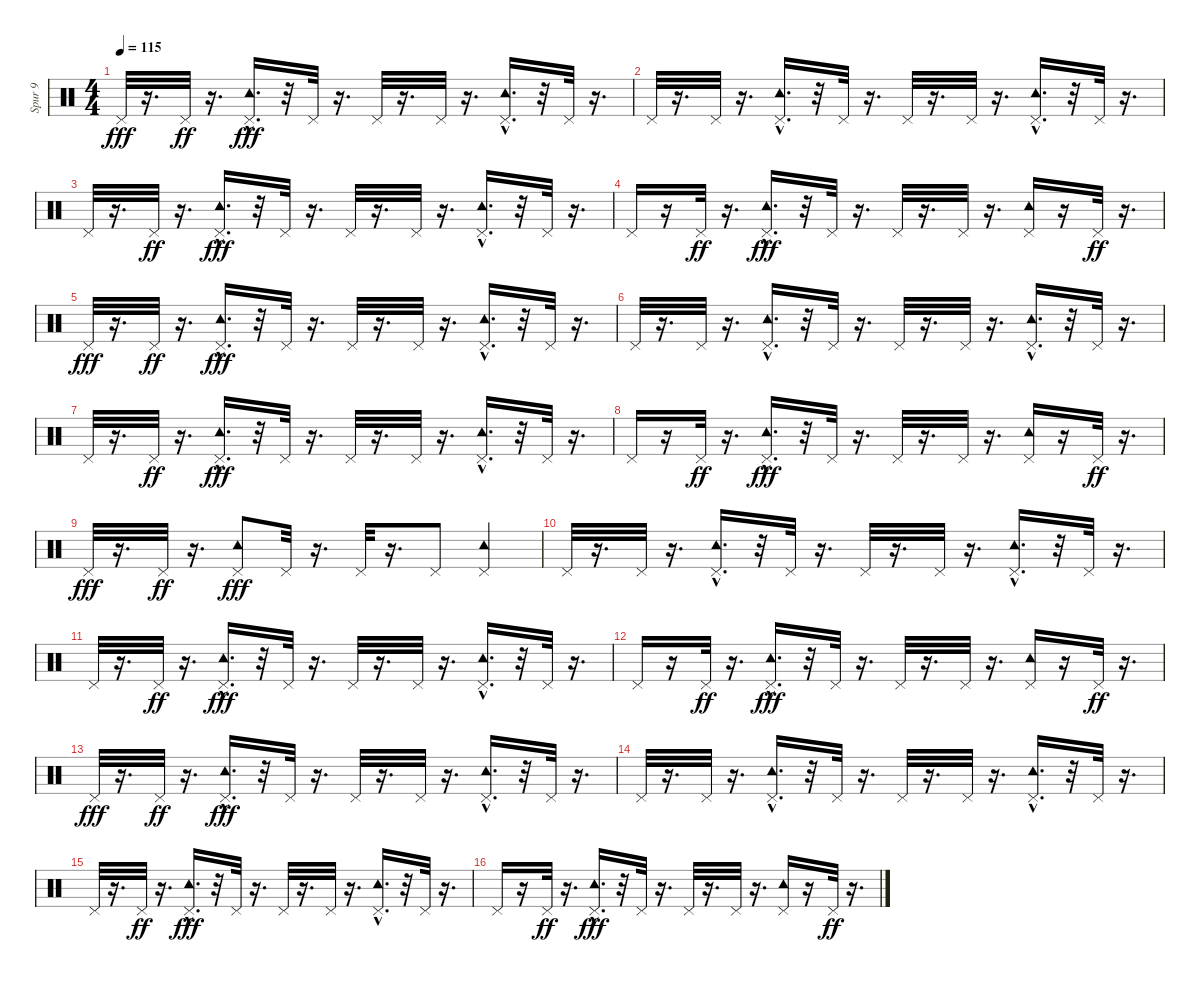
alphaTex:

\track ("Spur 9" "Spur 9") {instrument percussion}
\staff {score}
\articulation defaults
\ts (4 4)
\tempo 115
\clef neutral
\ks c "Pedal Hi-Hat (hit)".32{dy fff}
r.16{d} "Pedal Hi-Hat (hit)".32{dy ff} r.16{d} ("Tambourine (hit)"{hac} "Pedal Hi-Hat (hit)").16{d dy fff} r.32 "Pedal Hi-Hat (hit)".32 r.16{d} "Pedal Hi-Hat (hit)".32 r.16{d} "Pedal Hi-Hat (hit)".32 r.16{d} ("Pedal Hi-Hat (hit)" "Tambourine (hit)"{hac}).16{d} r.32 "Pedal Hi-Hat (hit)".32 r.16{d} |
"Pedal Hi-Hat (hit)".32 r.16{d} "Pedal Hi-Hat (hit)".32 r.16{d} ("Pedal Hi-Hat (hit)" "Tambourine (hit)"{hac}).16{d} r.32 "Pedal Hi-Hat (hit)".32 r.16{d} "Pedal Hi-Hat (hit)".32 r.16{d} "Pedal Hi-Hat (hit)".32 r.16{d} ("Pedal Hi-Hat (hit)" "Tambourine (hit)"{hac}).16{d} r.32 "Pedal Hi-Hat (hit)".32 r.16{d} |
"Pedal Hi-Hat (hit)".32 r.16{d} "Pedal Hi-Hat (hit)".32{dy ff} r.16{d} ("Tambourine (hit)"{hac} "Pedal Hi-Hat (hit)").16{d dy fff} r.32 "Pedal Hi-Hat (hit)".32 r.16{d} "Pedal Hi-Hat (hit)".32 r.16{d} "Pedal Hi-Hat (hit)".32 r.16{d} ("Pedal Hi-Hat (hit)" "Tambourine (hit)"{hac}).16{d} r.32 "Pedal Hi-Hat (hit)".32 r.16{d} |
"Pedal Hi-Hat (hit)".16 r.16 "Pedal Hi-Hat (hit)".32{dy ff} r.16{d} ("Tambourine (hit)"{hac} "Pedal Hi-Hat (hit)").16{d dy fff} r.32 "Pedal Hi-Hat (hit)".32 r.16{d} "Pedal Hi-Hat (hit)".32 r.16{d} "Pedal Hi-Hat (hit)".32 r.16{d} ("Pedal Hi-Hat (hit)" "Tambourine (hit)").16 r.16 "Pedal Hi-Hat (hit)".32{dy ff} r.16{d} |
"Pedal Hi-Hat (hit)".32{dy fff} r.16{d} "Pedal Hi-Hat (hit)".32{dy ff} r.16{d} ("Tambourine (hit)"{hac} "Pedal Hi-Hat (hit)").16{d dy fff} r.32 "Pedal Hi-Hat (hit)".32 r.16{d} "Pedal Hi-Hat (hit)".32 r.16{d} "Pedal Hi-Hat (hit)".32 r.16{d} ("Pedal Hi-Hat (hit)" "Tambourine (hit)"{hac}).16{d} r.32 "Pedal Hi-Hat (hit)".32 r.16{d} |
"Pedal Hi-Hat (hit)".32 r.16{d} "Pedal Hi-Hat (hit)".32 r.16{d} ("Pedal Hi-Hat (hit)" "Tambourine (hit)"{hac}).16{d} r.32 "Pedal Hi-Hat (hit)".32 r.16{d} "Pedal Hi-Hat (hit)".32 r.16{d} "Pedal Hi-Hat (hit)".32 r.16{d} ("Pedal Hi-Hat (hit)" "Tambourine (hit)"{hac}).16{d} r.32 "Pedal Hi-Hat (hit)".32 r.16{d} |
"Pedal Hi-Hat (hit)".32 r.16{d} "Pedal Hi-Hat (hit)".32{dy ff} r.16{d} ("Tambourine (hit)"{hac} "Pedal Hi-Hat (hit)").16{d dy fff} r.32 "Pedal Hi-Hat (hit)".32 r.16{d} "Pedal Hi-Hat (hit)".32 r.16{d} "Pedal Hi-Hat (hit)".32 r.16{d} ("Pedal Hi-Hat (hit)" "Tambourine (hit)"{hac}).16{d} r.32 "Pedal Hi-Hat (hit)".32 r.16{d} |
"Pedal Hi-Hat (hit)".16 r.16 "Pedal Hi-Hat (hit)".32{dy ff} r.16{d} ("Tambourine (hit)"{hac} "Pedal Hi-Hat (hit)").16{d dy fff} r.32 "Pedal Hi-Hat (hit)".32 r.16{d} "Pedal Hi-Hat (hit)".32 r.16{d} "Pedal Hi-Hat (hit)".32 r.16{d} ("Pedal Hi-Hat (hit)" "Tambourine (hit)").16 r.16 "Pedal Hi-Hat (hit)".32{dy ff} r.16{d} |
"Pedal Hi-Hat (hit)".32{dy fff} r.16{d} "Pedal Hi-Hat (hit)".32{dy ff} r.16{d} ("Tambourine (hit)" "Pedal Hi-Hat (hit)").8{dy fff} "Pedal Hi-Hat (hit)".32 r.16{d} "Pedal Hi-Hat (hit)".32 r.16{d} "Pedal Hi-Hat (hit)".8 ("Pedal Hi-Hat (hit)" "Tambourine (hit)").4 |
"Pedal Hi-Hat (hit)".32 r.16{d} "Pedal Hi-Hat (hit)".32 r.16{d} ("Pedal Hi-Hat (hit)" "Tambourine (hit)"{hac}).16{d} r.32 "Pedal Hi-Hat (hit)".32 r.16{d} "Pedal Hi-Hat (hit)".32 r.16{d} "Pedal Hi-Hat (hit)".32 r.16{d} ("Pedal Hi-Hat (hit)" "Tambourine (hit)"{hac}).16{d} r.32 "Pedal Hi-Hat (hit)".32 r.16{d} |
"Pedal Hi-Hat (hit)".32 r.16{d} "Pedal Hi-Hat (hit)".32{dy ff} r.16{d} ("Tambourine (hit)"{hac} "Pedal Hi-Hat (hit)").16{d dy fff} r.32 "Pedal Hi-Hat (hit)".32 r.16{d} "Pedal Hi-Hat (hit)".32 r.16{d} "Pedal Hi-Hat (hit)".32 r.16{d} ("Pedal Hi-Hat (hit)" "Tambourine (hit)"{hac}).16{d} r.32 "Pedal Hi-Hat (hit)".32 r.16{d} |
"Pedal Hi-Hat (hit)".16 r.16 "Pedal Hi-Hat (hit)".32{dy ff} r.16{d} ("Tambourine (hit)"{hac} "Pedal Hi-Hat (hit)").16{d dy fff} r.32 "Pedal Hi-Hat (hit)".32 r.16{d} "Pedal Hi-Hat (hit)".32 r.16{d} "Pedal Hi-Hat (hit)".32 r.16{d} ("Pedal Hi-Hat (hit)" "Tambourine (hit)").16 r.16 "Pedal Hi-Hat (hit)".32{dy ff} r.16{d} |
"Pedal Hi-Hat (hit)".32{dy fff} r.16{d} "Pedal Hi-Hat (hit)".32{dy ff} r.16{d} ("Tambourine (hit)"{hac} "Pedal Hi-Hat (hit)").16{d dy fff} r.32 "Pedal Hi-Hat (hit)".32 r.16{d} "Pedal Hi-Hat (hit)".32 r.16{d} "Pedal Hi-Hat (hit)".32 r.16{d} ("Pedal Hi-Hat (hit)" "Tambourine (hit)"{hac}).16{d} r.32 "Pedal Hi-Hat (hit)".32 r.16{d} |
"Pedal Hi-Hat (hit)".32 r.16{d} "Pedal Hi-Hat (hit)".32 r.16{d} ("Pedal Hi-Hat (hit)" "Tambourine (hit)"{hac}).16{d} r.32 "Pedal Hi-Hat (hit)".32 r.16{d} "Pedal Hi-Hat (hit)".32 r.16{d} "Pedal Hi-Hat (hit)".32 r.16{d} ("Pedal Hi-Hat (hit)" "Tambourine (hit)"{hac}).16{d} r.32 "Pedal Hi-Hat (hit)".32 r.16{d} |
"Pedal Hi-Hat (hit)".32 r.16{d} "Pedal Hi-Hat (hit)".32{dy ff} r.16{d} ("Tambourine (hit)"{hac} "Pedal Hi-Hat (hit)").16{d dy fff} r.32 "Pedal Hi-Hat (hit)".32 r.16{d} "Pedal Hi-Hat (hit)".32 r.16{d} "Pedal Hi-Hat (hit)".32 r.16{d} ("Pedal Hi-Hat (hit)" "Tambourine (hit)"{hac}).16{d} r.32 "Pedal Hi-Hat (hit)".32 r.16{d} |
"Pedal Hi-Hat (hit)".16 r.16 "Pedal Hi-Hat (hit)".32{dy ff} r.16{d} ("Tambourine (hit)"{hac} "Pedal Hi-Hat (hit)").16{d dy fff} r.32 "Pedal Hi-Hat (hit)".32 r.16{d} "Pedal Hi-Hat (hit)".32 r.16{d} "Pedal Hi-Hat (hit)".32 r.16{d} ("Pedal Hi-Hat (hit)" "Tambourine (hit)").16 r.16 "Pedal Hi-Hat (hit)".32{dy ff} r.16{d}
